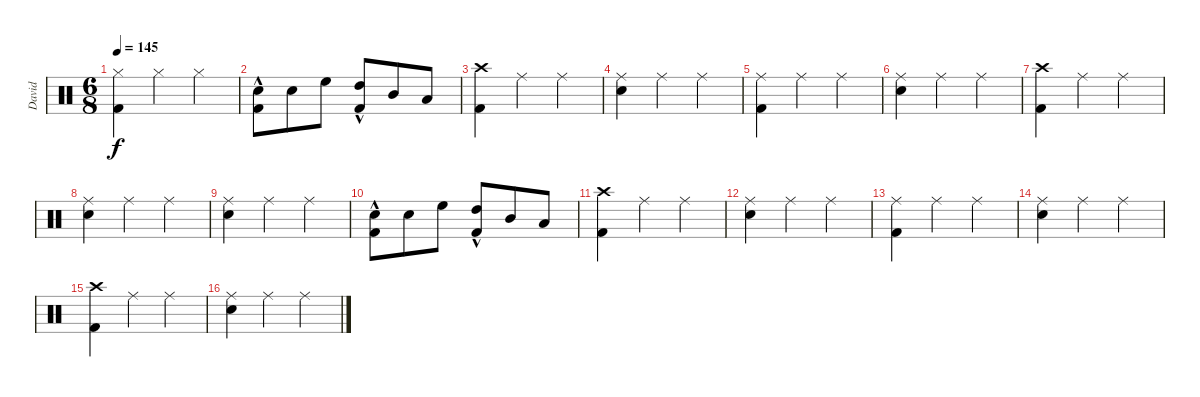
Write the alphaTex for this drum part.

\track ("David" "David") {instrument percussion}
\staff {score}
\articulation defaults
\ts (6 8)
\tempo 145
\clef neutral
\ks c
("Hi-Hat (closed)" "Kick (hit) 2").4{dy f} "Hi-Hat (closed)".4 "Hi-Hat (closed)".4 |
("Electric Snare (hit)" "Kick (hit) 2"{hac}).8 "Electric Snare (hit)".8 "High Floor Tom (hit)".8 ("High Tom (hit)" "Kick (hit) 2"{hac}).8 "Mid Tom (hit)".8 "Low Tom (hit)".8 |
("Crash high (hit)" "Kick (hit) 2").4 "Ride (middle)".4 "Ride (middle)".4 |
("Ride (middle)" "Electric Snare (hit)").4 "Ride (middle)".4 "Ride (middle)".4 |
("Ride (middle)" "Kick (hit) 2").4 "Ride (middle)".4 "Ride (middle)".4 |
("Ride (middle)" "Electric Snare (hit)").4 "Ride (middle)".4 "Ride (middle)".4 |
("Crash high (hit)" "Kick (hit) 2").4 "Ride (middle)".4 "Ride (middle)".4 |
("Ride (middle)" "Electric Snare (hit)").4 "Ride (middle)".4 "Ride (middle)".4 |
("Ride (middle)" "Electric Snare (hit)").4 "Ride (middle)".4 "Ride (middle)".4 |
("Electric Snare (hit)" "Kick (hit) 2"{hac}).8 "Electric Snare (hit)".8 "High Floor Tom (hit)".8 ("High Tom (hit)" "Kick (hit) 2"{hac}).8 "Mid Tom (hit)".8 "Low Tom (hit)".8 |
("Crash high (hit)" "Kick (hit) 2").4 "Ride (middle)".4 "Ride (middle)".4 |
("Ride (middle)" "Electric Snare (hit)").4 "Ride (middle)".4 "Ride (middle)".4 |
("Ride (middle)" "Kick (hit) 2").4 "Ride (middle)".4 "Ride (middle)".4 |
("Ride (middle)" "Electric Snare (hit)").4 "Ride (middle)".4 "Ride (middle)".4 |
("Crash high (hit)" "Kick (hit) 2").4 "Ride (middle)".4 "Ride (middle)".4 |
("Ride (middle)" "Electric Snare (hit)").4 "Ride (middle)".4 "Ride (middle)".4
